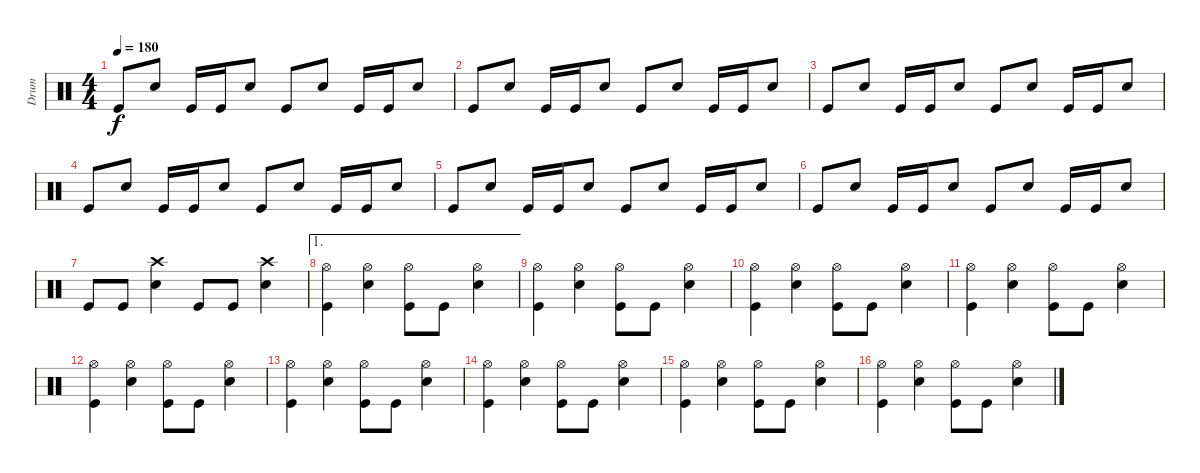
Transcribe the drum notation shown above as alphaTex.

\track ("Drum" "Drum") {instrument percussion}
\staff {score}
\articulation defaults
\ts (4 4)
\tempo 180
\clef neutral
\ks c "Kick (hit)".8{dy f} "Snare (hit) 2".8 "Kick (hit)".16 "Kick (hit)".16 "Snare (hit) 2".8 "Kick (hit)".8 "Snare (hit) 2".8 "Kick (hit)".16 "Kick (hit)".16 "Snare (hit) 2".8
|
"Kick (hit)".8 "Snare (hit) 2".8 "Kick (hit)".16 "Kick (hit)".16 "Snare (hit) 2".8 "Kick (hit)".8 "Snare (hit) 2".8 "Kick (hit)".16 "Kick (hit)".16 "Snare (hit) 2".8 |
"Kick (hit)".8 "Snare (hit) 2".8 "Kick (hit)".16 "Kick (hit)".16 "Snare (hit) 2".8 "Kick (hit)".8 "Snare (hit) 2".8 "Kick (hit)".16 "Kick (hit)".16 "Snare (hit) 2".8 |
"Kick (hit)".8 "Snare (hit) 2".8 "Kick (hit)".16 "Kick (hit)".16 "Snare (hit) 2".8 "Kick (hit)".8 "Snare (hit) 2".8 "Kick (hit)".16 "Kick (hit)".16 "Snare (hit) 2".8 |
"Kick (hit)".8 "Snare (hit) 2".8 "Kick (hit)".16 "Kick (hit)".16 "Snare (hit) 2".8 "Kick (hit)".8 "Snare (hit) 2".8 "Kick (hit)".16 "Kick (hit)".16 "Snare (hit) 2".8 |
"Kick (hit)".8 "Snare (hit) 2".8 "Kick (hit)".16 "Kick (hit)".16 "Snare (hit) 2".8 "Kick (hit)".8 "Snare (hit) 2".8 "Kick (hit)".16 "Kick (hit)".16 "Snare (hit) 2".8 |
"Kick (hit)".8 "Kick (hit)".8 ("Crash high (hit)" "Snare (hit) 2").4 "Kick (hit)".8 "Kick (hit)".8 ("Crash high (hit)" "Snare (hit) 2").4 |
\ae 1
("Hi-Hat (open)" "Kick (hit)").4 ("Hi-Hat (open)" "Snare (hit) 2").4 ("Hi-Hat (open)" "Kick (hit)").8 "Kick (hit)".8 ("Hi-Hat (open)" "Snare (hit) 2").4 |
("Hi-Hat (open)" "Kick (hit)").4 ("Hi-Hat (open)" "Snare (hit) 2").4 ("Hi-Hat (open)" "Kick (hit)").8 "Kick (hit)".8 ("Hi-Hat (open)" "Snare (hit) 2").4 |
("Hi-Hat (open)" "Kick (hit)").4 ("Hi-Hat (open)" "Snare (hit) 2").4 ("Hi-Hat (open)" "Kick (hit)").8 "Kick (hit)".8 ("Hi-Hat (open)" "Snare (hit) 2").4 |
("Hi-Hat (open)" "Kick (hit)").4 ("Hi-Hat (open)" "Snare (hit) 2").4 ("Hi-Hat (open)" "Kick (hit)").8 "Kick (hit)".8 ("Hi-Hat (open)" "Snare (hit) 2").4 |
("Hi-Hat (open)" "Kick (hit)").4 ("Hi-Hat (open)" "Snare (hit) 2").4 ("Hi-Hat (open)" "Kick (hit)").8 "Kick (hit)".8 ("Hi-Hat (open)" "Snare (hit) 2").4 |
("Hi-Hat (open)" "Kick (hit)").4 ("Hi-Hat (open)" "Snare (hit) 2").4 ("Hi-Hat (open)" "Kick (hit)").8 "Kick (hit)".8 ("Hi-Hat (open)" "Snare (hit) 2").4 |
("Hi-Hat (open)" "Kick (hit)").4 ("Hi-Hat (open)" "Snare (hit) 2").4 ("Hi-Hat (open)" "Kick (hit)").8 "Kick (hit)".8 ("Hi-Hat (open)" "Snare (hit) 2").4 |
("Hi-Hat (open)" "Kick (hit)").4 ("Hi-Hat (open)" "Snare (hit) 2").4 ("Hi-Hat (open)" "Kick (hit)").8 "Kick (hit)".8 ("Hi-Hat (open)" "Snare (hit) 2").4 |
("Hi-Hat (open)" "Kick (hit)").4 ("Hi-Hat (open)" "Snare (hit) 2").4 ("Hi-Hat (open)" "Kick (hit)").8 "Kick (hit)".8 ("Hi-Hat (open)" "Snare (hit) 2").4
